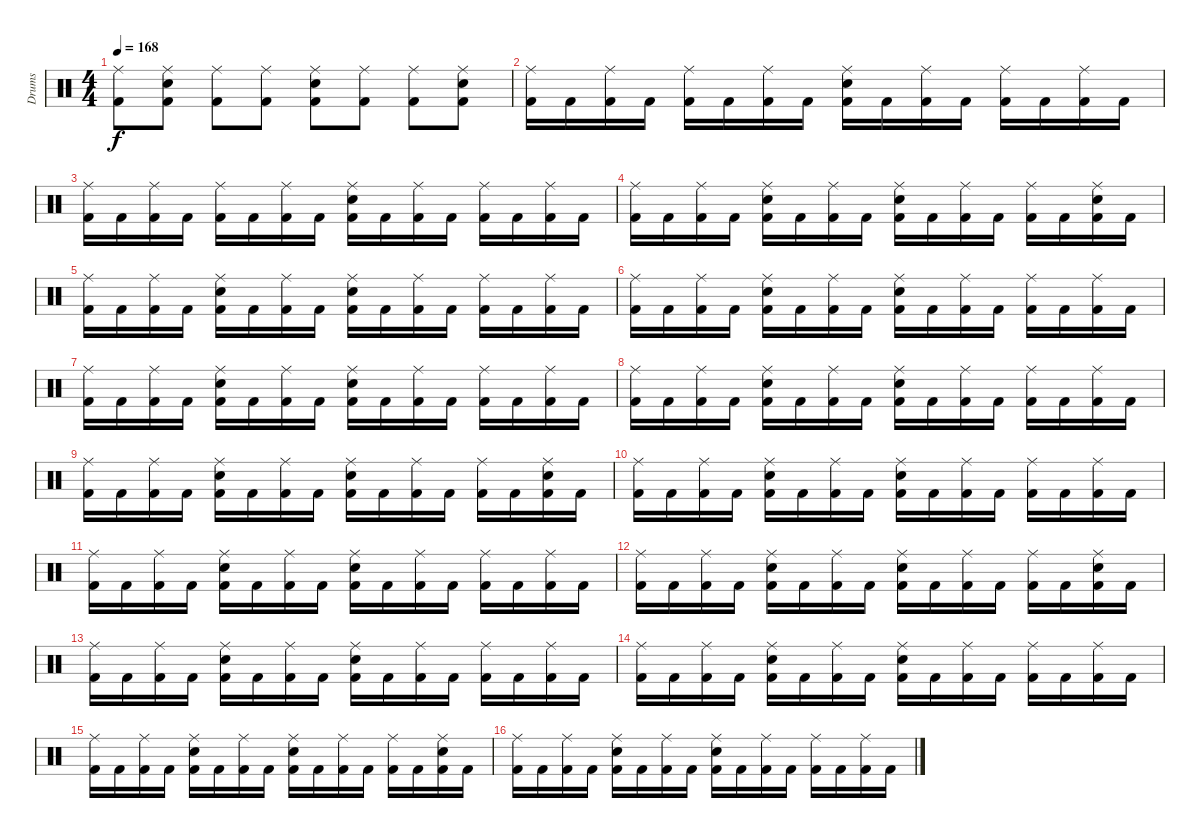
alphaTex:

\track ("Drums" "Drums") {instrument percussion}
\staff {score}
\articulation defaults
\ts (4 4)
\tempo 168
\clef neutral
\ks c
("Kick (hit) 2" "Ride (middle)").8{dy f} ("Kick (hit) 2" "Snare (hit) 2" "Ride (middle)").8 ("Kick (hit) 2" "Ride (middle)").8 ("Kick (hit) 2" "Ride (middle)").8 ("Kick (hit) 2" "Snare (hit) 2" "Ride (middle)").8 ("Kick (hit) 2" "Ride (middle)").8 ("Kick (hit) 2" "Ride (middle)").8 ("Kick (hit) 2" "Snare (hit) 2" "Ride (middle)").8 |
("Kick (hit) 2" "Ride (middle)").16 "Kick (hit) 2".16 ("Kick (hit) 2" "Ride (middle)").16 "Kick (hit) 2".16 ("Kick (hit) 2" "Ride (middle)").16 "Kick (hit) 2".16 ("Kick (hit) 2" "Ride (middle)").16 "Kick (hit) 2".16 ("Kick (hit) 2" "Snare (hit) 2" "Ride (middle)").16 "Kick (hit) 2".16 ("Kick (hit) 2" "Ride (middle)").16 "Kick (hit) 2".16 ("Kick (hit) 2" "Ride (middle)").16 "Kick (hit) 2".16 ("Kick (hit) 2" "Ride (middle)").16 "Kick (hit) 2".16 |
("Kick (hit) 2" "Ride (middle)").16 "Kick (hit) 2".16 ("Kick (hit) 2" "Ride (middle)").16 "Kick (hit) 2".16 ("Kick (hit) 2" "Ride (middle)").16 "Kick (hit) 2".16 ("Kick (hit) 2" "Ride (middle)").16 "Kick (hit) 2".16 ("Kick (hit) 2" "Snare (hit) 2" "Ride (middle)").16 "Kick (hit) 2".16 ("Kick (hit) 2" "Ride (middle)").16 "Kick (hit) 2".16 ("Kick (hit) 2" "Ride (middle)").16 "Kick (hit) 2".16 ("Kick (hit) 2" "Ride (middle)").16 "Kick (hit) 2".16 |
("Kick (hit) 2" "Ride (middle)").16 "Kick (hit) 2".16 ("Kick (hit) 2" "Ride (middle)").16 "Kick (hit) 2".16 ("Kick (hit) 2" "Snare (hit) 2" "Ride (middle)").16 "Kick (hit) 2".16 ("Kick (hit) 2" "Ride (middle)").16 "Kick (hit) 2".16 ("Kick (hit) 2" "Snare (hit) 2" "Ride (middle)").16 "Kick (hit) 2".16 ("Kick (hit) 2" "Ride (middle)").16 "Kick (hit) 2".16 ("Kick (hit) 2" "Ride (middle)").16 "Kick (hit) 2".16 ("Kick (hit) 2" "Snare (hit) 2" "Ride (middle)").16 "Kick (hit) 2".16 |
("Kick (hit) 2" "Ride (middle)").16 "Kick (hit) 2".16 ("Kick (hit) 2" "Ride (middle)").16 "Kick (hit) 2".16 ("Kick (hit) 2" "Snare (hit) 2" "Ride (middle)").16 "Kick (hit) 2".16 ("Kick (hit) 2" "Ride (middle)").16 "Kick (hit) 2".16 ("Kick (hit) 2" "Snare (hit) 2" "Ride (middle)").16 "Kick (hit) 2".16 ("Kick (hit) 2" "Ride (middle)").16 "Kick (hit) 2".16 ("Kick (hit) 2" "Ride (middle)").16 "Kick (hit) 2".16 ("Kick (hit) 2" "Ride (middle)").16 "Kick (hit) 2".16 |
("Kick (hit) 2" "Ride (middle)").16 "Kick (hit) 2".16 ("Kick (hit) 2" "Ride (middle)").16 "Kick (hit) 2".16 ("Kick (hit) 2" "Snare (hit) 2" "Ride (middle)").16 "Kick (hit) 2".16 ("Kick (hit) 2" "Ride (middle)").16 "Kick (hit) 2".16 ("Kick (hit) 2" "Snare (hit) 2" "Ride (middle)").16 "Kick (hit) 2".16 ("Kick (hit) 2" "Ride (middle)").16 "Kick (hit) 2".16 ("Kick (hit) 2" "Ride (middle)").16 "Kick (hit) 2".16 ("Kick (hit) 2" "Ride (middle)").16 "Kick (hit) 2".16 |
("Kick (hit) 2" "Ride (middle)").16 "Kick (hit) 2".16 ("Kick (hit) 2" "Ride (middle)").16 "Kick (hit) 2".16 ("Kick (hit) 2" "Snare (hit) 2" "Ride (middle)").16 "Kick (hit) 2".16 ("Kick (hit) 2" "Ride (middle)").16 "Kick (hit) 2".16 ("Kick (hit) 2" "Snare (hit) 2" "Ride (middle)").16 "Kick (hit) 2".16 ("Kick (hit) 2" "Ride (middle)").16 "Kick (hit) 2".16 ("Kick (hit) 2" "Ride (middle)").16 "Kick (hit) 2".16 ("Kick (hit) 2" "Ride (middle)").16 "Kick (hit) 2".16 |
("Kick (hit) 2" "Ride (middle)").16 "Kick (hit) 2".16 ("Kick (hit) 2" "Ride (middle)").16 "Kick (hit) 2".16 ("Kick (hit) 2" "Snare (hit) 2" "Ride (middle)").16 "Kick (hit) 2".16 ("Kick (hit) 2" "Ride (middle)").16 "Kick (hit) 2".16 ("Kick (hit) 2" "Snare (hit) 2" "Ride (middle)").16 "Kick (hit) 2".16 ("Kick (hit) 2" "Ride (middle)").16 "Kick (hit) 2".16 ("Kick (hit) 2" "Ride (middle)").16 "Kick (hit) 2".16 ("Kick (hit) 2" "Ride (middle)").16 "Kick (hit) 2".16 |
("Kick (hit) 2" "Ride (middle)").16 "Kick (hit) 2".16 ("Kick (hit) 2" "Ride (middle)").16 "Kick (hit) 2".16 ("Kick (hit) 2" "Snare (hit) 2" "Ride (middle)").16 "Kick (hit) 2".16 ("Kick (hit) 2" "Ride (middle)").16 "Kick (hit) 2".16 ("Kick (hit) 2" "Snare (hit) 2" "Ride (middle)").16 "Kick (hit) 2".16 ("Kick (hit) 2" "Ride (middle)").16 "Kick (hit) 2".16 ("Kick (hit) 2" "Ride (middle)").16 "Kick (hit) 2".16 ("Kick (hit) 2" "Snare (hit) 2" "Ride (middle)").16 "Kick (hit) 2".16 |
("Kick (hit) 2" "Ride (middle)").16 "Kick (hit) 2".16 ("Kick (hit) 2" "Ride (middle)").16 "Kick (hit) 2".16 ("Kick (hit) 2" "Snare (hit) 2" "Ride (middle)").16 "Kick (hit) 2".16 ("Kick (hit) 2" "Ride (middle)").16 "Kick (hit) 2".16 ("Kick (hit) 2" "Snare (hit) 2" "Ride (middle)").16 "Kick (hit) 2".16 ("Kick (hit) 2" "Ride (middle)").16 "Kick (hit) 2".16 ("Kick (hit) 2" "Ride (middle)").16 "Kick (hit) 2".16 ("Kick (hit) 2" "Ride (middle)").16 "Kick (hit) 2".16 |
("Kick (hit) 2" "Ride (middle)").16 "Kick (hit) 2".16 ("Kick (hit) 2" "Ride (middle)").16 "Kick (hit) 2".16 ("Kick (hit) 2" "Snare (hit) 2" "Ride (middle)").16 "Kick (hit) 2".16 ("Kick (hit) 2" "Ride (middle)").16 "Kick (hit) 2".16 ("Kick (hit) 2" "Snare (hit) 2" "Ride (middle)").16 "Kick (hit) 2".16 ("Kick (hit) 2" "Ride (middle)").16 "Kick (hit) 2".16 ("Kick (hit) 2" "Ride (middle)").16 "Kick (hit) 2".16 ("Kick (hit) 2" "Ride (middle)").16 "Kick (hit) 2".16 |
("Kick (hit) 2" "Ride (middle)").16{volume 12} "Kick (hit) 2".16 ("Kick (hit) 2" "Ride (middle)").16 "Kick (hit) 2".16 ("Kick (hit) 2" "Snare (hit) 2" "Ride (middle)").16 "Kick (hit) 2".16 ("Kick (hit) 2" "Ride (middle)").16 "Kick (hit) 2".16 ("Kick (hit) 2" "Snare (hit) 2" "Ride (middle)").16 "Kick (hit) 2".16 ("Kick (hit) 2" "Ride (middle)").16 "Kick (hit) 2".16 ("Kick (hit) 2" "Ride (middle)").16 "Kick (hit) 2".16 ("Kick (hit) 2" "Snare (hit) 2" "Ride (middle)").16 "Kick (hit) 2".16 |
("Kick (hit) 2" "Ride (middle)").16{volume 8} "Kick (hit) 2".16 ("Kick (hit) 2" "Ride (middle)").16 "Kick (hit) 2".16 ("Kick (hit) 2" "Snare (hit) 2" "Ride (middle)").16 "Kick (hit) 2".16 ("Kick (hit) 2" "Ride (middle)").16 "Kick (hit) 2".16 ("Kick (hit) 2" "Snare (hit) 2" "Ride (middle)").16 "Kick (hit) 2".16 ("Kick (hit) 2" "Ride (middle)").16 "Kick (hit) 2".16 ("Kick (hit) 2" "Ride (middle)").16 "Kick (hit) 2".16 ("Kick (hit) 2" "Ride (middle)").16 "Kick (hit) 2".16 |
("Kick (hit) 2" "Ride (middle)").16{volume 8} "Kick (hit) 2".16 ("Kick (hit) 2" "Ride (middle)").16 "Kick (hit) 2".16 ("Kick (hit) 2" "Snare (hit) 2" "Ride (middle)").16 "Kick (hit) 2".16 ("Kick (hit) 2" "Ride (middle)").16 "Kick (hit) 2".16 ("Kick (hit) 2" "Snare (hit) 2" "Ride (middle)").16 "Kick (hit) 2".16 ("Kick (hit) 2" "Ride (middle)").16 "Kick (hit) 2".16 ("Kick (hit) 2" "Ride (middle)").16 "Kick (hit) 2".16 ("Kick (hit) 2" "Ride (middle)").16 "Kick (hit) 2".16 |
("Kick (hit) 2" "Ride (middle)").16{volume 6} "Kick (hit) 2".16 ("Kick (hit) 2" "Ride (middle)").16 "Kick (hit) 2".16 ("Kick (hit) 2" "Snare (hit) 2" "Ride (middle)").16 "Kick (hit) 2".16 ("Kick (hit) 2" "Ride (middle)").16 "Kick (hit) 2".16 ("Kick (hit) 2" "Snare (hit) 2" "Ride (middle)").16 "Kick (hit) 2".16 ("Kick (hit) 2" "Ride (middle)").16 "Kick (hit) 2".16 ("Kick (hit) 2" "Ride (middle)").16 "Kick (hit) 2".16 ("Kick (hit) 2" "Snare (hit) 2" "Ride (middle)").16 "Kick (hit) 2".16 |
("Kick (hit) 2" "Ride (middle)").16{volume 4} "Kick (hit) 2".16 ("Kick (hit) 2" "Ride (middle)").16 "Kick (hit) 2".16 ("Kick (hit) 2" "Snare (hit) 2" "Ride (middle)").16 "Kick (hit) 2".16 ("Kick (hit) 2" "Ride (middle)").16 "Kick (hit) 2".16 ("Kick (hit) 2" "Snare (hit) 2" "Ride (middle)").16 "Kick (hit) 2".16 ("Kick (hit) 2" "Ride (middle)").16 "Kick (hit) 2".16 ("Kick (hit) 2" "Ride (middle)").16 "Kick (hit) 2".16 ("Kick (hit) 2" "Ride (middle)").16 "Kick (hit) 2".16
